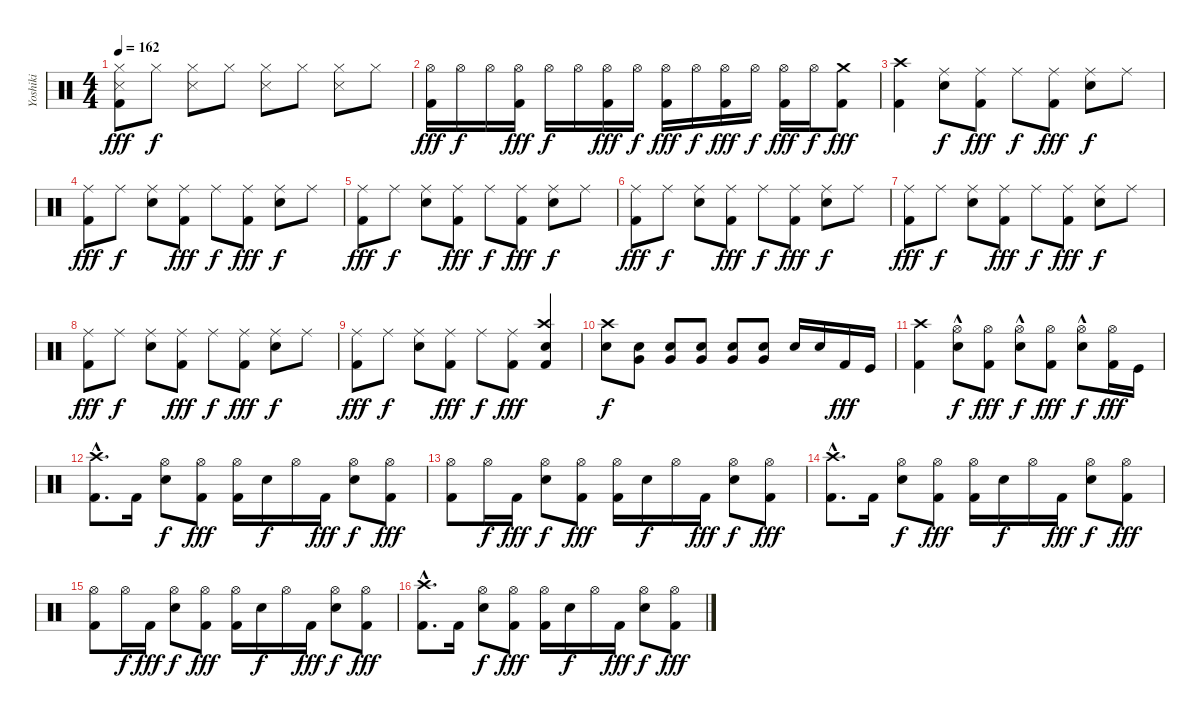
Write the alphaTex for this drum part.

\track ("Yoshiki" "Yoshiki") {instrument percussion}
\staff {score}
\articulation defaults
\ts (4 4)
\tempo 162
\clef neutral
\ks c
("Hi-Hat (closed)" "Snare (side stick) 3" "Kick (hit) 2").8{dy fff} "Hi-Hat (closed)".8{dy f} ("Hi-Hat (closed)" "Snare (side stick) 3").8 "Hi-Hat (closed)".8 ("Hi-Hat (closed)" "Snare (side stick) 3").8 "Hi-Hat (closed)".8 ("Hi-Hat (closed)" "Snare (side stick) 3").8 "Hi-Hat (closed)".8 |
("Hi-Hat (open)" "Kick (hit) 2").16{dy fff} "Hi-Hat (open)".16{dy f} "Hi-Hat (open)".16 ("Hi-Hat (open)" "Kick (hit) 2").16{dy fff} "Hi-Hat (open)".16{dy f} "Hi-Hat (open)".16 ("Hi-Hat (open)" "Kick (hit) 2").16{dy fff} "Hi-Hat (open)".16{dy f} ("Hi-Hat (open)" "Kick (hit) 2").16{dy fff} "Hi-Hat (open)".16{dy f} ("Hi-Hat (open)" "Kick (hit) 2").16{dy fff} "Hi-Hat (open)".16{dy f} ("Hi-Hat (open)" "Kick (hit) 2").16{dy fff} "Hi-Hat (open)".16{dy f} ("Crash medium (hit)" "Kick (hit) 2").8{dy fff} |
("Crash high (hit)" "Kick (hit) 2").4 ("Ride (middle)" "Electric Snare (hit)").8{dy f} ("Ride (middle)" "Kick (hit) 2").8{dy fff} "Ride (middle)".8{dy f} ("Ride (middle)" "Kick (hit) 2").8{dy fff} ("Ride (middle)" "Electric Snare (hit)").8{dy f} "Ride (middle)".8 |
("Ride (middle)" "Kick (hit) 2").8{dy fff} "Ride (middle)".8{dy f} ("Ride (middle)" "Electric Snare (hit)").8 ("Ride (middle)" "Kick (hit) 2").8{dy fff} "Ride (middle)".8{dy f} ("Ride (middle)" "Kick (hit) 2").8{dy fff} ("Ride (middle)" "Electric Snare (hit)").8{dy f} "Ride (middle)".8 |
("Ride (middle)" "Kick (hit) 2").8{dy fff} "Ride (middle)".8{dy f} ("Ride (middle)" "Electric Snare (hit)").8 ("Ride (middle)" "Kick (hit) 2").8{dy fff} "Ride (middle)".8{dy f} ("Ride (middle)" "Kick (hit) 2").8{dy fff} ("Ride (middle)" "Electric Snare (hit)").8{dy f} "Ride (middle)".8 |
("Ride (middle)" "Kick (hit) 2").8{dy fff} "Ride (middle)".8{dy f} ("Ride (middle)" "Electric Snare (hit)").8 ("Ride (middle)" "Kick (hit) 2").8{dy fff} "Ride (middle)".8{dy f} ("Ride (middle)" "Kick (hit) 2").8{dy fff} ("Ride (middle)" "Electric Snare (hit)").8{dy f} "Ride (middle)".8 |
("Ride (middle)" "Kick (hit) 2").8{dy fff} "Ride (middle)".8{dy f} ("Ride (middle)" "Electric Snare (hit)").8 ("Ride (middle)" "Kick (hit) 2").8{dy fff} "Ride (middle)".8{dy f} ("Ride (middle)" "Kick (hit) 2").8{dy fff} ("Ride (middle)" "Electric Snare (hit)").8{dy f} "Ride (middle)".8 |
("Ride (middle)" "Kick (hit) 2").8{dy fff} "Ride (middle)".8{dy f} ("Ride (middle)" "Electric Snare (hit)").8 ("Ride (middle)" "Kick (hit) 2").8{dy fff} "Ride (middle)".8{dy f} ("Ride (middle)" "Kick (hit) 2").8{dy fff} ("Ride (middle)" "Electric Snare (hit)").8{dy f} "Ride (middle)".8 |
("Ride (middle)" "Kick (hit) 2").8{dy fff} "Ride (middle)".8{dy f} ("Ride (middle)" "Electric Snare (hit)").8 ("Ride (middle)" "Kick (hit) 2").8{dy fff} "Ride (middle)".8{dy f} ("Ride (middle)" "Kick (hit) 2").8{dy fff} ("Crash high (hit)" "Electric Snare (hit)" "Kick (hit) 2").4 |
("Crash high (hit)" "Electric Snare (hit)").8{dy f} ("Very Low Tom (hit)" "Electric Snare (hit)").8 ("Very Low Tom (hit)" "Electric Snare (hit)").8 ("Very Low Tom (hit)" "Electric Snare (hit)").8 ("Very Low Tom (hit)" "Electric Snare (hit)").8 ("Very Low Tom (hit)" "Electric Snare (hit)").8 "Electric Snare (hit)".16 "Electric Snare (hit)".16 "Kick (hit) 2".16{dy fff} "Kick (hit)".16 |
("Crash high (hit)" "Kick (hit) 2").4 ("Hi-Hat (open)"{hac} "Electric Snare (hit)").8{dy f} ("Hi-Hat (open)" "Kick (hit) 2").8{dy fff} ("Hi-Hat (open)"{hac} "Electric Snare (hit)").8{dy f} ("Hi-Hat (open)" "Kick (hit) 2").8{dy fff} ("Hi-Hat (open)"{hac} "Electric Snare (hit)").8{dy f} ("Hi-Hat (open)" "Kick (hit) 2").16{dy fff} "Kick (hit)".16 |
("Crash high (hit)"{hac} "Kick (hit) 2"{hac}).8{d} "Kick (hit) 2".16 ("Hi-Hat (open)" "Electric Snare (hit)").8{dy f} ("Hi-Hat (open)" "Kick (hit) 2").8{dy fff} ("Hi-Hat (open)" "Kick (hit) 2").16 "Electric Snare (hit)".16{dy f} "Hi-Hat (open)".16 "Kick (hit) 2".16{dy fff} ("Hi-Hat (open)" "Electric Snare (hit)").8{dy f} ("Hi-Hat (open)" "Kick (hit) 2").8{dy fff} |
("Hi-Hat (open)" "Kick (hit) 2").8 "Hi-Hat (open)".16{dy f} "Kick (hit) 2".16{dy fff} ("Hi-Hat (open)" "Electric Snare (hit)").8{dy f} ("Hi-Hat (open)" "Kick (hit) 2").8{dy fff} ("Hi-Hat (open)" "Kick (hit) 2").16 "Electric Snare (hit)".16{dy f} "Hi-Hat (open)".16 "Kick (hit) 2".16{dy fff} ("Hi-Hat (open)" "Electric Snare (hit)").8{dy f} ("Hi-Hat (open)" "Kick (hit) 2").8{dy fff} |
("Crash high (hit)"{hac} "Kick (hit) 2"{hac}).8{d} "Kick (hit) 2".16 ("Hi-Hat (open)" "Electric Snare (hit)").8{dy f} ("Hi-Hat (open)" "Kick (hit) 2").8{dy fff} ("Hi-Hat (open)" "Kick (hit) 2").16 "Electric Snare (hit)".16{dy f} "Hi-Hat (open)".16 "Kick (hit) 2".16{dy fff} ("Hi-Hat (open)" "Electric Snare (hit)").8{dy f} ("Hi-Hat (open)" "Kick (hit) 2").8{dy fff} |
("Hi-Hat (open)" "Kick (hit) 2").8 "Hi-Hat (open)".16{dy f} "Kick (hit) 2".16{dy fff} ("Hi-Hat (open)" "Electric Snare (hit)").8{dy f} ("Hi-Hat (open)" "Kick (hit) 2").8{dy fff} ("Hi-Hat (open)" "Kick (hit) 2").16 "Electric Snare (hit)".16{dy f} "Hi-Hat (open)".16 "Kick (hit) 2".16{dy fff} ("Hi-Hat (open)" "Electric Snare (hit)").8{dy f} ("Hi-Hat (open)" "Kick (hit) 2").8{dy fff} |
("Crash high (hit)"{hac} "Kick (hit) 2"{hac}).8{d} "Kick (hit) 2".16 ("Hi-Hat (open)" "Electric Snare (hit)").8{dy f} ("Hi-Hat (open)" "Kick (hit) 2").8{dy fff} ("Hi-Hat (open)" "Kick (hit) 2").16 "Electric Snare (hit)".16{dy f} "Hi-Hat (open)".16 "Kick (hit) 2".16{dy fff} ("Hi-Hat (open)" "Electric Snare (hit)").8{dy f} ("Hi-Hat (open)" "Kick (hit) 2").8{dy fff}
